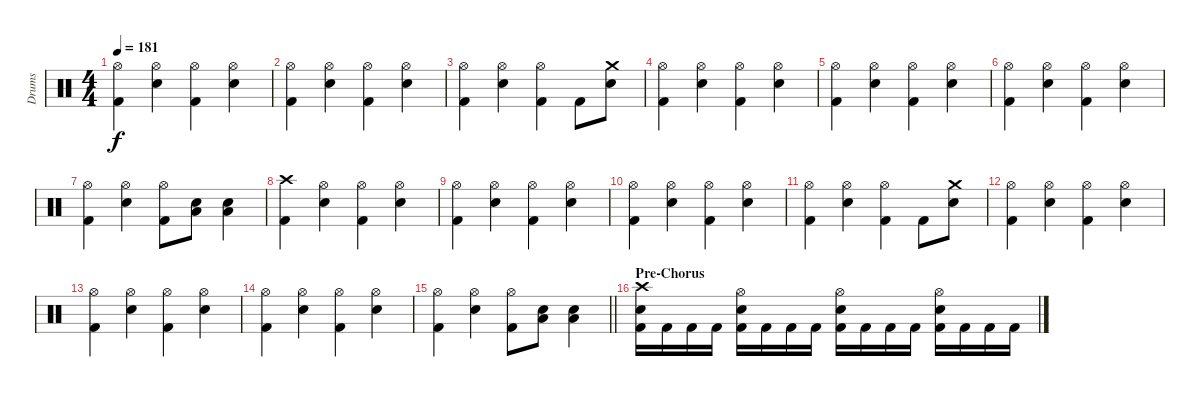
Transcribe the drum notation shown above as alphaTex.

\track ("Drums" "Drums") {instrument percussion}
\staff {score}
\articulation defaults
\ts (4 4)
\tempo 181
\clef neutral
\ks c
("Hi-Hat (open)" "Kick (hit) 2").4{dy f} ("Hi-Hat (open)" "Snare (hit) 2").4 ("Hi-Hat (open)" "Kick (hit) 2").4 ("Hi-Hat (open)" "Snare (hit) 2").4 |
("Hi-Hat (open)" "Kick (hit) 2").4 ("Hi-Hat (open)" "Snare (hit) 2").4 ("Hi-Hat (open)" "Kick (hit) 2").4 ("Hi-Hat (open)" "Snare (hit) 2").4 |
("Hi-Hat (open)" "Kick (hit) 2").4 ("Hi-Hat (open)" "Snare (hit) 2").4 ("Hi-Hat (open)" "Kick (hit) 2").4 "Kick (hit) 2".8 ("Crash medium (hit)" "Snare (hit) 2").8 |
("Hi-Hat (open)" "Kick (hit) 2").4 ("Hi-Hat (open)" "Snare (hit) 2").4 ("Hi-Hat (open)" "Kick (hit) 2").4 ("Hi-Hat (open)" "Snare (hit) 2").4 |
("Hi-Hat (open)" "Kick (hit) 2").4 ("Hi-Hat (open)" "Snare (hit) 2").4 ("Hi-Hat (open)" "Kick (hit) 2").4 ("Hi-Hat (open)" "Snare (hit) 2").4 |
("Hi-Hat (open)" "Kick (hit) 2").4 ("Hi-Hat (open)" "Snare (hit) 2").4 ("Hi-Hat (open)" "Kick (hit) 2").4 ("Hi-Hat (open)" "Snare (hit) 2").4 |
("Hi-Hat (open)" "Kick (hit) 2").4 ("Hi-Hat (open)" "Snare (hit) 2").4 ("Hi-Hat (open)" "Kick (hit) 2").8 ("Snare (hit) 2" "Low Tom (hit)").8 ("Snare (hit) 2" "Low Tom (hit)").4 |
("Crash high (hit)" "Kick (hit) 2").4 ("Hi-Hat (open)" "Snare (hit) 2").4 ("Hi-Hat (open)" "Kick (hit) 2").4 ("Hi-Hat (open)" "Snare (hit) 2").4 |
("Hi-Hat (open)" "Kick (hit) 2").4 ("Hi-Hat (open)" "Snare (hit) 2").4 ("Hi-Hat (open)" "Kick (hit) 2").4 ("Hi-Hat (open)" "Snare (hit) 2").4 |
("Hi-Hat (open)" "Kick (hit) 2").4 ("Hi-Hat (open)" "Snare (hit) 2").4 ("Hi-Hat (open)" "Kick (hit) 2").4 ("Hi-Hat (open)" "Snare (hit) 2").4 |
("Hi-Hat (open)" "Kick (hit) 2").4 ("Hi-Hat (open)" "Snare (hit) 2").4 ("Hi-Hat (open)" "Kick (hit) 2").4 "Kick (hit) 2".8 ("Crash medium (hit)" "Snare (hit) 2").8 |
("Hi-Hat (open)" "Kick (hit) 2").4 ("Hi-Hat (open)" "Snare (hit) 2").4 ("Hi-Hat (open)" "Kick (hit) 2").4 ("Hi-Hat (open)" "Snare (hit) 2").4 |
("Hi-Hat (open)" "Kick (hit) 2").4 ("Hi-Hat (open)" "Snare (hit) 2").4 ("Hi-Hat (open)" "Kick (hit) 2").4 ("Hi-Hat (open)" "Snare (hit) 2").4 |
("Hi-Hat (open)" "Kick (hit) 2").4 ("Hi-Hat (open)" "Snare (hit) 2").4 ("Hi-Hat (open)" "Kick (hit) 2").4 ("Hi-Hat (open)" "Snare (hit) 2").4 |
\barLineRight lightlight
("Hi-Hat (open)" "Kick (hit) 2").4 ("Hi-Hat (open)" "Snare (hit) 2").4 ("Hi-Hat (open)" "Kick (hit) 2").8 ("Snare (hit) 2" "Low Tom (hit)").8 ("Snare (hit) 2" "Low Tom (hit)").4 |
\section ("" "Pre-Chorus")
("Crash high (hit)" "Snare (hit) 2" "Kick (hit) 2").16 "Kick (hit) 2".16 "Kick (hit) 2".16 "Kick (hit) 2".16 ("Hi-Hat (open)" "Snare (hit) 2" "Kick (hit) 2").16 "Kick (hit) 2".16 "Kick (hit) 2".16 "Kick (hit) 2".16 ("Hi-Hat (open)" "Snare (hit) 2" "Kick (hit) 2").16 "Kick (hit) 2".16 "Kick (hit) 2".16 "Kick (hit) 2".16 ("Hi-Hat (open)" "Snare (hit) 2" "Kick (hit) 2").16 "Kick (hit) 2".16 "Kick (hit) 2".16 "Kick (hit) 2".16
